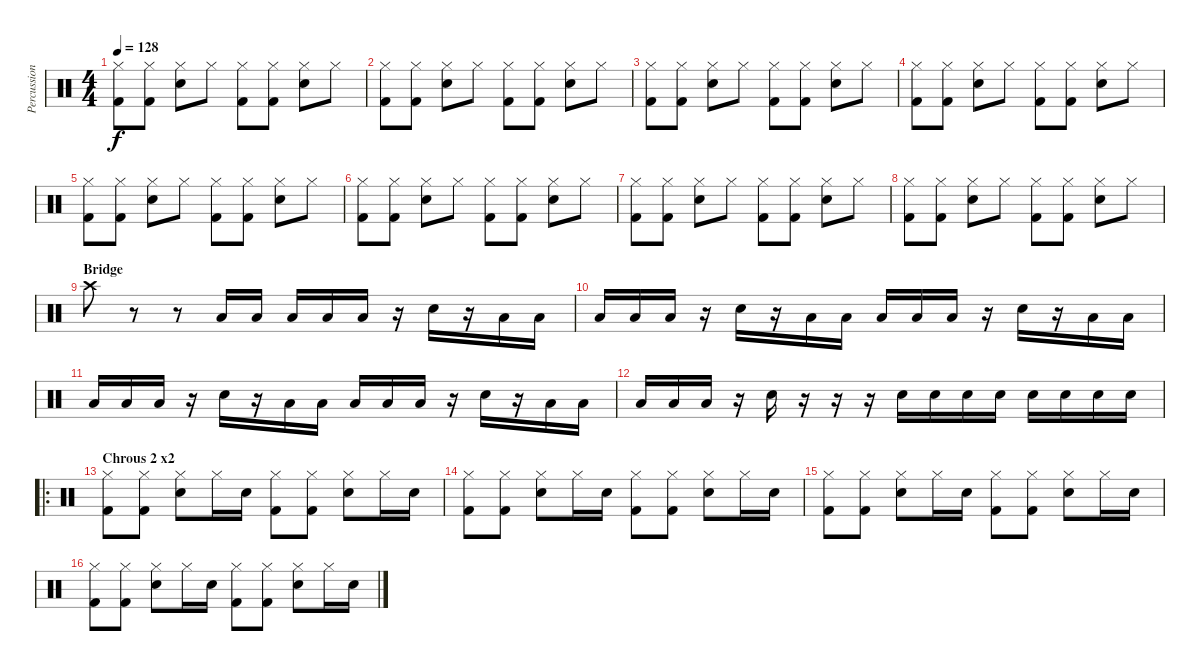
\track ("Percussion" "Percussion") {instrument percussion}
\staff {score}
\articulation defaults
\ts (4 4)
\tempo 128
\clef neutral
\ks c
("Hi-Hat (closed)" "Kick (hit) 2").8{dy f} ("Hi-Hat (closed)" "Kick (hit) 2").8 ("Hi-Hat (closed)" "Snare (hit) 2").8 "Hi-Hat (closed)".8 ("Hi-Hat (closed)" "Kick (hit) 2").8 ("Hi-Hat (closed)" "Kick (hit) 2").8 ("Hi-Hat (closed)" "Snare (hit) 2").8 "Hi-Hat (closed)".8 |
("Hi-Hat (closed)" "Kick (hit) 2").8 ("Hi-Hat (closed)" "Kick (hit) 2").8 ("Hi-Hat (closed)" "Snare (hit) 2").8 "Hi-Hat (closed)".8 ("Hi-Hat (closed)" "Kick (hit) 2").8 ("Hi-Hat (closed)" "Kick (hit) 2").8 ("Hi-Hat (closed)" "Snare (hit) 2").8 "Hi-Hat (closed)".8 |
("Hi-Hat (closed)" "Kick (hit) 2").8 ("Hi-Hat (closed)" "Kick (hit) 2").8 ("Hi-Hat (closed)" "Snare (hit) 2").8 "Hi-Hat (closed)".8 ("Hi-Hat (closed)" "Kick (hit) 2").8 ("Hi-Hat (closed)" "Kick (hit) 2").8 ("Hi-Hat (closed)" "Snare (hit) 2").8 "Hi-Hat (closed)".8 |
("Hi-Hat (closed)" "Kick (hit) 2").8 ("Hi-Hat (closed)" "Kick (hit) 2").8 ("Hi-Hat (closed)" "Snare (hit) 2").8 "Hi-Hat (closed)".8 ("Hi-Hat (closed)" "Kick (hit) 2").8 ("Hi-Hat (closed)" "Kick (hit) 2").8 ("Hi-Hat (closed)" "Snare (hit) 2").8 "Hi-Hat (closed)".8 |
("Hi-Hat (closed)" "Kick (hit) 2").8 ("Hi-Hat (closed)" "Kick (hit) 2").8 ("Hi-Hat (closed)" "Snare (hit) 2").8 "Hi-Hat (closed)".8 ("Hi-Hat (closed)" "Kick (hit) 2").8 ("Hi-Hat (closed)" "Kick (hit) 2").8 ("Hi-Hat (closed)" "Snare (hit) 2").8 "Hi-Hat (closed)".8 |
("Hi-Hat (closed)" "Kick (hit) 2").8 ("Hi-Hat (closed)" "Kick (hit) 2").8 ("Hi-Hat (closed)" "Snare (hit) 2").8 "Hi-Hat (closed)".8 ("Hi-Hat (closed)" "Kick (hit) 2").8 ("Hi-Hat (closed)" "Kick (hit) 2").8 ("Hi-Hat (closed)" "Snare (hit) 2").8 "Hi-Hat (closed)".8 |
("Hi-Hat (closed)" "Kick (hit) 2").8 ("Hi-Hat (closed)" "Kick (hit) 2").8 ("Hi-Hat (closed)" "Snare (hit) 2").8 "Hi-Hat (closed)".8 ("Hi-Hat (closed)" "Kick (hit) 2").8 ("Hi-Hat (closed)" "Kick (hit) 2").8 ("Hi-Hat (closed)" "Snare (hit) 2").8 "Hi-Hat (closed)".8 |
("Hi-Hat (closed)" "Kick (hit) 2").8 ("Hi-Hat (closed)" "Kick (hit) 2").8 ("Hi-Hat (closed)" "Snare (hit) 2").8 "Hi-Hat (closed)".8 ("Hi-Hat (closed)" "Kick (hit) 2").8 ("Hi-Hat (closed)" "Kick (hit) 2").8 ("Hi-Hat (closed)" "Snare (hit) 2").8 "Hi-Hat (closed)".8 |
\section ("" "Bridge")
"Crash high (hit)".8 r.8 r.8 "Low Floor Tom (hit)".16 "Low Floor Tom (hit)".16 "Low Floor Tom (hit)".16 "Low Floor Tom (hit)".16 "Low Floor Tom (hit)".16 r.16 "Snare (hit) 2".16 r.16 "Low Floor Tom (hit)".16 "Low Floor Tom (hit)".16 |
"Low Floor Tom (hit)".16 "Low Floor Tom (hit)".16 "Low Floor Tom (hit)".16 r.16 "Snare (hit) 2".16 r.16 "Low Floor Tom (hit)".16 "Low Floor Tom (hit)".16 "Low Floor Tom (hit)".16 "Low Floor Tom (hit)".16 "Low Floor Tom (hit)".16 r.16 "Snare (hit) 2".16 r.16 "Low Floor Tom (hit)".16 "Low Floor Tom (hit)".16 |
"Low Floor Tom (hit)".16 "Low Floor Tom (hit)".16 "Low Floor Tom (hit)".16 r.16 "Snare (hit) 2".16 r.16 "Low Floor Tom (hit)".16 "Low Floor Tom (hit)".16 "Low Floor Tom (hit)".16 "Low Floor Tom (hit)".16 "Low Floor Tom (hit)".16 r.16 "Snare (hit) 2".16 r.16 "Low Floor Tom (hit)".16 "Low Floor Tom (hit)".16 |
"Low Floor Tom (hit)".16 "Low Floor Tom (hit)".16 "Low Floor Tom (hit)".16 r.16 "Snare (hit) 2".16 r.16 r.16 r.16 "Snare (hit) 2".16 "Snare (hit) 2".16 "Snare (hit) 2".16 "Snare (hit) 2".16 "Snare (hit) 2".16 "Snare (hit) 2".16 "Snare (hit) 2".16 "Snare (hit) 2".16 |
\ro
\section ("" "Chrous 2 x2")
("Hi-Hat (closed)" "Kick (hit) 2").8 ("Hi-Hat (closed)" "Kick (hit) 2").8 ("Hi-Hat (closed)" "Snare (hit) 2").8 "Hi-Hat (closed)".16 "Snare (hit) 2".16 ("Hi-Hat (closed)" "Kick (hit) 2").8 ("Hi-Hat (closed)" "Kick (hit) 2").8 ("Hi-Hat (closed)" "Snare (hit) 2").8 "Hi-Hat (closed)".16 "Snare (hit) 2".16 |
("Hi-Hat (closed)" "Kick (hit) 2").8 ("Hi-Hat (closed)" "Kick (hit) 2").8 ("Hi-Hat (closed)" "Snare (hit) 2").8 "Hi-Hat (closed)".16 "Snare (hit) 2".16 ("Hi-Hat (closed)" "Kick (hit) 2").8 ("Hi-Hat (closed)" "Kick (hit) 2").8 ("Hi-Hat (closed)" "Snare (hit) 2").8 "Hi-Hat (closed)".16 "Snare (hit) 2".16 |
("Hi-Hat (closed)" "Kick (hit) 2").8 ("Hi-Hat (closed)" "Kick (hit) 2").8 ("Hi-Hat (closed)" "Snare (hit) 2").8 "Hi-Hat (closed)".16 "Snare (hit) 2".16 ("Hi-Hat (closed)" "Kick (hit) 2").8 ("Hi-Hat (closed)" "Kick (hit) 2").8 ("Hi-Hat (closed)" "Snare (hit) 2").8 "Hi-Hat (closed)".16 "Snare (hit) 2".16 |
("Hi-Hat (closed)" "Kick (hit) 2").8 ("Hi-Hat (closed)" "Kick (hit) 2").8 ("Hi-Hat (closed)" "Snare (hit) 2").8 "Hi-Hat (closed)".16 "Snare (hit) 2".16 ("Hi-Hat (closed)" "Kick (hit) 2").8 ("Hi-Hat (closed)" "Kick (hit) 2").8 ("Hi-Hat (closed)" "Snare (hit) 2").8 "Hi-Hat (closed)".16 "Snare (hit) 2".16
